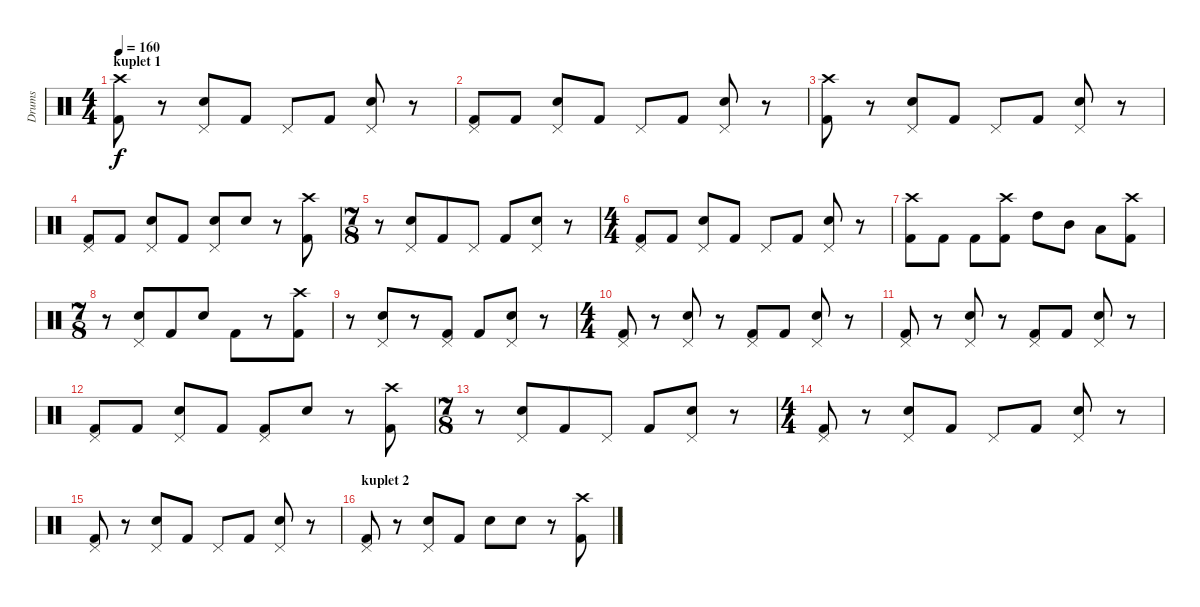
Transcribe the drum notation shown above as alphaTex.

\track ("Drums" "Drums") {instrument percussion}
\staff {score}
\articulation defaults
\ts (4 4)
\section ("" "kuplet 1")
\tempo 160
\clef neutral
\ks c
("Kick (hit) 2" "Crash high (hit)").8{dy f} r.8 ("Snare (hit) 2" "Pedal Hi-Hat (hit)").8 "Kick (hit) 2".8 "Pedal Hi-Hat (hit)".8 "Kick (hit) 2".8 ("Snare (hit) 2" "Pedal Hi-Hat (hit)").8 r.8 |
("Kick (hit) 2" "Pedal Hi-Hat (hit)").8 "Kick (hit) 2".8 ("Snare (hit) 2" "Pedal Hi-Hat (hit)").8 "Kick (hit) 2".8 "Pedal Hi-Hat (hit)".8 "Kick (hit) 2".8 ("Snare (hit) 2" "Pedal Hi-Hat (hit)").8 r.8 |
("Kick (hit) 2" "Crash high (hit)").8 r.8 ("Snare (hit) 2" "Pedal Hi-Hat (hit)").8 "Kick (hit) 2".8 "Pedal Hi-Hat (hit)".8 "Kick (hit) 2".8 ("Snare (hit) 2" "Pedal Hi-Hat (hit)").8 r.8 |
("Kick (hit) 2" "Pedal Hi-Hat (hit)").8 "Kick (hit) 2".8 ("Snare (hit) 2" "Pedal Hi-Hat (hit)").8 "Kick (hit) 2".8 ("Snare (hit) 2" "Pedal Hi-Hat (hit)").8 "Snare (hit) 2".8 r.8 ("Kick (hit) 2" "Crash high (hit)").8 |
\ts (7 8)
r.8 ("Snare (hit) 2" "Pedal Hi-Hat (hit)").8 "Kick (hit) 2".8 "Pedal Hi-Hat (hit)".8 "Kick (hit) 2".8 ("Snare (hit) 2" "Pedal Hi-Hat (hit)").8 r.8 |
\ts (4 4)
("Kick (hit) 2" "Pedal Hi-Hat (hit)").8 "Kick (hit) 2".8 ("Snare (hit) 2" "Pedal Hi-Hat (hit)").8 "Kick (hit) 2".8 "Pedal Hi-Hat (hit)".8 "Kick (hit) 2".8 ("Snare (hit) 2" "Pedal Hi-Hat (hit)").8 r.8 |
("Kick (hit) 2" "Crash high (hit)").8 "Kick (hit) 2".8 "Kick (hit) 2".8 ("Kick (hit) 2" "Crash high (hit)").8 "High Tom (hit)".8 "Mid Tom (hit)".8 "Low Tom (hit)".8 ("Kick (hit) 2" "Crash high (hit)").8 |
\ts (7 8)
r.8 ("Snare (hit) 2" "Pedal Hi-Hat (hit)").8 "Kick (hit) 2".8 "Snare (hit) 2".8 "Kick (hit) 2".8 r.8 ("Kick (hit) 2" "Crash high (hit)").8 |
r.8 ("Snare (hit) 2" "Pedal Hi-Hat (hit)").8 r.8 ("Kick (hit) 2" "Pedal Hi-Hat (hit)").8 "Kick (hit) 2".8 ("Snare (hit) 2" "Pedal Hi-Hat (hit)").8 r.8 |
\ts (4 4)
("Kick (hit) 2" "Pedal Hi-Hat (hit)").8 r.8 ("Snare (hit) 2" "Pedal Hi-Hat (hit)").8 r.8 ("Kick (hit) 2" "Pedal Hi-Hat (hit)").8 "Kick (hit) 2".8 ("Snare (hit) 2" "Pedal Hi-Hat (hit)").8 r.8 |
("Kick (hit) 2" "Pedal Hi-Hat (hit)").8 r.8 ("Snare (hit) 2" "Pedal Hi-Hat (hit)").8 r.8 ("Kick (hit) 2" "Pedal Hi-Hat (hit)").8 "Kick (hit) 2".8 ("Snare (hit) 2" "Pedal Hi-Hat (hit)").8 r.8 |
("Kick (hit) 2" "Pedal Hi-Hat (hit)").8 "Kick (hit) 2".8 ("Snare (hit) 2" "Pedal Hi-Hat (hit)").8 "Kick (hit) 2".8 ("Kick (hit) 2" "Pedal Hi-Hat (hit)").8 "Snare (hit) 2".8 r.8 ("Kick (hit) 2" "Crash high (hit)").8 |
\ts (7 8)
r.8 ("Snare (hit) 2" "Pedal Hi-Hat (hit)").8 "Kick (hit) 2".8 "Pedal Hi-Hat (hit)".8 "Kick (hit) 2".8 ("Snare (hit) 2" "Pedal Hi-Hat (hit)").8 r.8 |
\ts (4 4)
("Kick (hit) 2" "Pedal Hi-Hat (hit)").8 r.8 ("Snare (hit) 2" "Pedal Hi-Hat (hit)").8 "Kick (hit) 2".8 "Pedal Hi-Hat (hit)".8 "Kick (hit) 2".8 ("Snare (hit) 2" "Pedal Hi-Hat (hit)").8 r.8 |
("Kick (hit) 2" "Pedal Hi-Hat (hit)").8 r.8 ("Snare (hit) 2" "Pedal Hi-Hat (hit)").8 "Kick (hit) 2".8 "Pedal Hi-Hat (hit)".8 "Kick (hit) 2".8 ("Snare (hit) 2" "Pedal Hi-Hat (hit)").8 r.8 |
\section ("" "kuplet 2")
("Kick (hit) 2" "Pedal Hi-Hat (hit)").8 r.8 ("Snare (hit) 2" "Pedal Hi-Hat (hit)").8 "Kick (hit) 2".8 "Snare (hit) 2".8 "Snare (hit) 2".8 r.8 ("Kick (hit) 2" "Crash high (hit)").8
